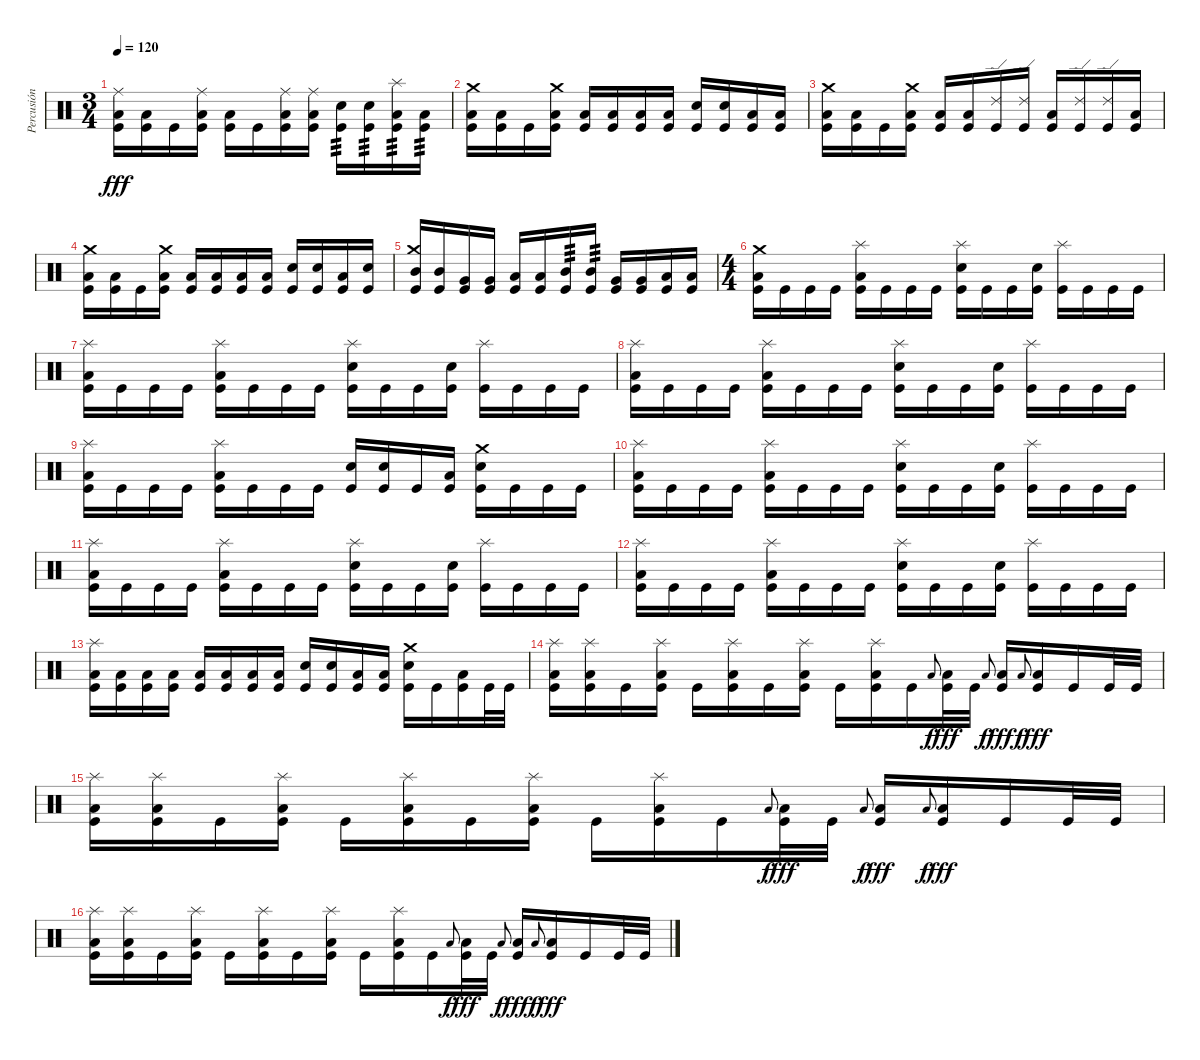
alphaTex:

\track ("Percusión" "Percusión") {instrument percussion}
\staff {score}
\articulation defaults
\ts (3 4)
\tempo 120
\clef neutral
\ks c
("Ride (middle)" "Low Floor Tom (hit)" "Kick (hit)").16{dy fff} ("Low Floor Tom (hit)" "Kick (hit)").16 "Kick (hit)".16 ("Ride (middle)" "Low Floor Tom (hit)" "Kick (hit)").16 ("Low Floor Tom (hit)" "Kick (hit)").16 "Kick (hit)".16 ("Ride (middle)" "Low Floor Tom (hit)" "Kick (hit)").16 ("Ride (middle)" "Low Floor Tom (hit)" "Kick (hit)").16 ("Snare (hit) 2" "Kick (hit)").16{tp 3} ("Snare (hit) 2" "Kick (hit)").16{tp 3} ("Splash (hit)" "Low Floor Tom (hit)" "Kick (hit)").16{tp 3} ("Low Floor Tom (hit)" "Kick (hit)").16{tp 3} |
("Crash medium (hit)" "Low Floor Tom (hit)" "Kick (hit)").16 ("Low Floor Tom (hit)" "Kick (hit)").16 "Kick (hit)".16 ("Crash medium (hit)" "Low Floor Tom (hit)" "Kick (hit)").16 ("Low Floor Tom (hit)" "Kick (hit)").16 ("Low Floor Tom (hit)" "Kick (hit)").16 ("Low Floor Tom (hit)" "Kick (hit)").16 ("Low Floor Tom (hit)" "Kick (hit)").16 ("Snare (hit) 2" "Kick (hit)").16 ("Snare (hit) 2" "Kick (hit)").16 ("Low Floor Tom (hit)" "Kick (hit)").16 ("Low Floor Tom (hit)" "Kick (hit)").16 |
("Crash medium (hit)" "Low Floor Tom (hit)" "Kick (hit)").16 ("Low Floor Tom (hit)" "Kick (hit)").16 "Kick (hit)".16 ("Crash medium (hit)" "Low Floor Tom (hit)" "Kick (hit)").16 ("Low Floor Tom (hit)" "Kick (hit)").16 ("Low Floor Tom (hit)" "Kick (hit)").16 ("Ride (edge) 2" "Kick (hit)").16 ("Ride (edge) 2" "Kick (hit)").16 ("Low Floor Tom (hit)" "Kick (hit)").16 ("Ride (edge) 2" "Kick (hit)").16 ("Ride (edge) 2" "Kick (hit)").16 ("Low Floor Tom (hit)" "Kick (hit)").16 |
("Crash medium (hit)" "Low Floor Tom (hit)" "Kick (hit)").16 ("Low Floor Tom (hit)" "Kick (hit)").16 "Kick (hit)".16 ("Crash medium (hit)" "Low Floor Tom (hit)" "Kick (hit)").16 ("Low Floor Tom (hit)" "Kick (hit)").16 ("Low Floor Tom (hit)" "Kick (hit)").16 ("Low Floor Tom (hit)" "Kick (hit)").16 ("Low Floor Tom (hit)" "Kick (hit)").16 ("Snare (hit) 2" "Kick (hit)").16 ("Snare (hit) 2" "Kick (hit)").16 ("Low Floor Tom (hit)" "Kick (hit)").16 ("Snare (hit) 2" "Kick (hit)").16 |
("Crash medium (hit)" "Mid Tom (hit)" "Kick (hit)").16 ("Mid Tom (hit)" "Kick (hit)").16 ("Very Low Tom (hit)" "Kick (hit)").16 ("Very Low Tom (hit)" "Kick (hit)").16 ("Low Floor Tom (hit)" "Kick (hit)").16 ("Low Floor Tom (hit)" "Kick (hit)").16 ("Mid Tom (hit)" "Kick (hit)").16{tp 3} ("Mid Tom (hit)" "Kick (hit)").16{tp 3} ("Very Low Tom (hit)" "Kick (hit)").16 ("Very Low Tom (hit)" "Kick (hit)").16 ("Low Floor Tom (hit)" "Kick (hit)").16 ("Low Floor Tom (hit)" "Kick (hit)").16 |
\ts (4 4)
("Crash medium (hit)" "Low Floor Tom (hit)" "Kick (hit)").16 "Kick (hit)".16 "Kick (hit)".16 "Kick (hit)".16 ("Splash (hit)" "Low Floor Tom (hit)" "Kick (hit)").16 "Kick (hit)".16 "Kick (hit)".16 "Kick (hit)".16 ("Splash (hit)" "Snare (hit) 2" "Kick (hit)").16 "Kick (hit)".16 "Kick (hit)".16 ("Snare (hit) 2" "Kick (hit)").16 ("Splash (hit)" "Kick (hit)").16 "Kick (hit)".16 "Kick (hit)".16 "Kick (hit)".16 |
("Splash (hit)" "Low Floor Tom (hit)" "Kick (hit)").16 "Kick (hit)".16 "Kick (hit)".16 "Kick (hit)".16 ("Splash (hit)" "Low Floor Tom (hit)" "Kick (hit)").16 "Kick (hit)".16 "Kick (hit)".16 "Kick (hit)".16 ("Splash (hit)" "Snare (hit) 2" "Kick (hit)").16 "Kick (hit)".16 "Kick (hit)".16 ("Snare (hit) 2" "Kick (hit)").16 ("Splash (hit)" "Kick (hit)").16 "Kick (hit)".16 "Kick (hit)".16 "Kick (hit)".16 |
("Splash (hit)" "Low Floor Tom (hit)" "Kick (hit)").16 "Kick (hit)".16 "Kick (hit)".16 "Kick (hit)".16 ("Splash (hit)" "Low Floor Tom (hit)" "Kick (hit)").16 "Kick (hit)".16 "Kick (hit)".16 "Kick (hit)".16 ("Splash (hit)" "Snare (hit) 2" "Kick (hit)").16 "Kick (hit)".16 "Kick (hit)".16 ("Snare (hit) 2" "Kick (hit)").16 ("Splash (hit)" "Kick (hit)").16 "Kick (hit)".16 "Kick (hit)".16 "Kick (hit)".16 |
("Splash (hit)" "Low Floor Tom (hit)" "Kick (hit)").16 "Kick (hit)".16 "Kick (hit)".16 "Kick (hit)".16 ("Splash (hit)" "Low Floor Tom (hit)" "Kick (hit)").16 "Kick (hit)".16 "Kick (hit)".16 "Kick (hit)".16 ("Snare (hit) 2" "Kick (hit)").16 ("Snare (hit) 2" "Kick (hit)").16 "Kick (hit)".16 ("Low Floor Tom (hit)" "Kick (hit)").16 ("Crash medium (hit)" "Snare (hit) 2" "Kick (hit)").16 "Kick (hit)".16 "Kick (hit)".16 "Kick (hit)".16 |
("Splash (hit)" "Low Floor Tom (hit)" "Kick (hit)").16 "Kick (hit)".16 "Kick (hit)".16 "Kick (hit)".16 ("Splash (hit)" "Low Floor Tom (hit)" "Kick (hit)").16 "Kick (hit)".16 "Kick (hit)".16 "Kick (hit)".16 ("Splash (hit)" "Snare (hit) 2" "Kick (hit)").16 "Kick (hit)".16 "Kick (hit)".16 ("Snare (hit) 2" "Kick (hit)").16 ("Splash (hit)" "Kick (hit)").16 "Kick (hit)".16 "Kick (hit)".16 "Kick (hit)".16 |
("Splash (hit)" "Low Floor Tom (hit)" "Kick (hit)").16 "Kick (hit)".16 "Kick (hit)".16 "Kick (hit)".16 ("Splash (hit)" "Low Floor Tom (hit)" "Kick (hit)").16 "Kick (hit)".16 "Kick (hit)".16 "Kick (hit)".16 ("Splash (hit)" "Snare (hit) 2" "Kick (hit)").16 "Kick (hit)".16 "Kick (hit)".16 ("Snare (hit) 2" "Kick (hit)").16 ("Splash (hit)" "Kick (hit)").16 "Kick (hit)".16 "Kick (hit)".16 "Kick (hit)".16 |
("Splash (hit)" "Low Floor Tom (hit)" "Kick (hit)").16 "Kick (hit)".16 "Kick (hit)".16 "Kick (hit)".16 ("Splash (hit)" "Low Floor Tom (hit)" "Kick (hit)").16 "Kick (hit)".16 "Kick (hit)".16 "Kick (hit)".16 ("Splash (hit)" "Snare (hit) 2" "Kick (hit)").16 "Kick (hit)".16 "Kick (hit)".16 ("Snare (hit) 2" "Kick (hit)").16 ("Splash (hit)" "Kick (hit)").16 "Kick (hit)".16 "Kick (hit)".16 "Kick (hit)".16 |
("Splash (hit)" "Low Floor Tom (hit)" "Kick (hit)").16 ("Low Floor Tom (hit)" "Kick (hit)").16 ("Low Floor Tom (hit)" "Kick (hit)").16 ("Low Floor Tom (hit)" "Kick (hit)").16 ("Low Floor Tom (hit)" "Kick (hit)").16 ("Low Floor Tom (hit)" "Kick (hit)").16 ("Low Floor Tom (hit)" "Kick (hit)").16 ("Low Floor Tom (hit)" "Kick (hit)").16 ("Snare (hit) 2" "Kick (hit)").16 ("Snare (hit) 2" "Kick (hit)").16 ("Low Floor Tom (hit)" "Kick (hit)").16 ("Low Floor Tom (hit)" "Kick (hit)").16 ("Crash medium (hit)" "Snare (hit) 2" "Kick (hit)").16 "Kick (hit)".16 ("Low Floor Tom (hit)" "Kick (hit)").16 "Kick (hit)".32 "Kick (hit)".32 |
("Splash (hit)" "Low Floor Tom (hit)" "Kick (hit)").16 ("Splash (hit)" "Low Floor Tom (hit)" "Kick (hit)").16 "Kick (hit)".16 ("Splash (hit)" "Low Floor Tom (hit)" "Kick (hit)").16 "Kick (hit)".16 ("Splash (hit)" "Low Floor Tom (hit)" "Kick (hit)").16 "Kick (hit)".16 ("Splash (hit)" "Low Floor Tom (hit)" "Kick (hit)").16 "Kick (hit)".16 ("Splash (hit)" "Low Floor Tom (hit)" "Kick (hit)").16 "Kick (hit)".16 "Low Floor Tom (hit)".8{gr onbeat dy f} ("Low Floor Tom (hit)" "Kick (hit)").32{dy fff} "Kick (hit)".32 "Low Floor Tom (hit)".8{gr onbeat dy f} ("Low Floor Tom (hit)" "Kick (hit)").16{dy fff} "Low Floor Tom (hit)".8{gr onbeat dy f} ("Low Floor Tom (hit)" "Kick (hit)").16{dy fff} "Kick (hit)".16 "Kick (hit)".32 "Kick (hit)".32 |
("Splash (hit)" "Low Floor Tom (hit)" "Kick (hit)").16 ("Splash (hit)" "Low Floor Tom (hit)" "Kick (hit)").16 "Kick (hit)".16 ("Splash (hit)" "Low Floor Tom (hit)" "Kick (hit)").16 "Kick (hit)".16 ("Splash (hit)" "Low Floor Tom (hit)" "Kick (hit)").16 "Kick (hit)".16 ("Splash (hit)" "Low Floor Tom (hit)" "Kick (hit)").16 "Kick (hit)".16 ("Splash (hit)" "Low Floor Tom (hit)" "Kick (hit)").16 "Kick (hit)".16 "Low Floor Tom (hit)".8{gr onbeat dy f} ("Low Floor Tom (hit)" "Kick (hit)").32{dy fff} "Kick (hit)".32 "Low Floor Tom (hit)".8{gr onbeat dy f} ("Low Floor Tom (hit)" "Kick (hit)").16{dy fff} "Low Floor Tom (hit)".8{gr onbeat dy f} ("Low Floor Tom (hit)" "Kick (hit)").16{dy fff} "Kick (hit)".16 "Kick (hit)".32 "Kick (hit)".32 |
("Splash (hit)" "Low Floor Tom (hit)" "Kick (hit)").16 ("Splash (hit)" "Low Floor Tom (hit)" "Kick (hit)").16 "Kick (hit)".16 ("Splash (hit)" "Low Floor Tom (hit)" "Kick (hit)").16 "Kick (hit)".16 ("Splash (hit)" "Low Floor Tom (hit)" "Kick (hit)").16 "Kick (hit)".16 ("Splash (hit)" "Low Floor Tom (hit)" "Kick (hit)").16 "Kick (hit)".16 ("Splash (hit)" "Low Floor Tom (hit)" "Kick (hit)").16 "Kick (hit)".16 "Low Floor Tom (hit)".8{gr onbeat dy f} ("Low Floor Tom (hit)" "Kick (hit)").32{dy fff} "Kick (hit)".32 "Low Floor Tom (hit)".8{gr onbeat dy f} ("Low Floor Tom (hit)" "Kick (hit)").16{dy fff} "Low Floor Tom (hit)".8{gr onbeat dy f} ("Low Floor Tom (hit)" "Kick (hit)").16{dy fff} "Kick (hit)".16 "Kick (hit)".32 "Kick (hit)".32
